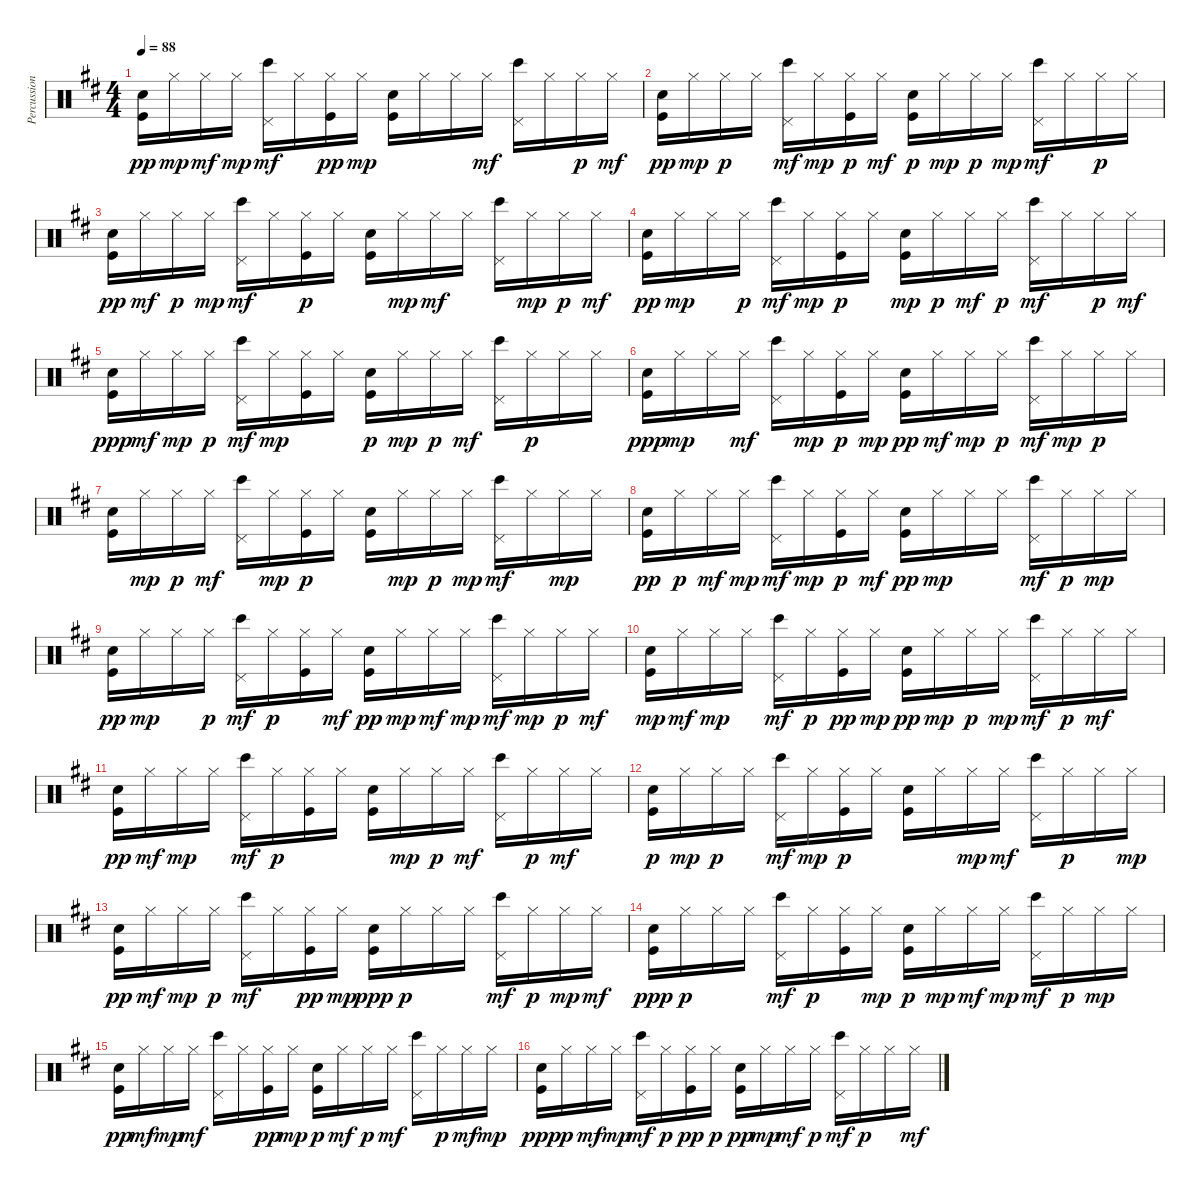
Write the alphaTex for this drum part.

\track ("Percussion" "Percussion") {instrument percussion}
\staff {score}
\articulation defaults
\ts (4 4)
\tempo 88
\clef neutral
\ks d
("Snare (hit)" "Kick (hit)").16{dy pp} "Hi-Hat (closed)".16{dy mp} "Hi-Hat (closed)".16{dy mf} "Hi-Hat (closed)".16{dy mp} ("Bongo High (hit)" "Pedal Hi-Hat (hit)").16{dy mf} "Hi-Hat (closed)".16 ("Hi-Hat (closed)" "Kick (hit)").16{dy pp} "Hi-Hat (closed)".16{dy mp} ("Snare (hit)" "Kick (hit)").16 "Hi-Hat (closed)".16 "Hi-Hat (closed)".16 "Hi-Hat (closed)".16{dy mf} ("Bongo High (hit)" "Pedal Hi-Hat (hit)").16 "Hi-Hat (closed)".16 "Hi-Hat (closed)".16{dy p} "Hi-Hat (closed)".16{dy mf} |
("Snare (hit)" "Kick (hit)").16{dy pp} "Hi-Hat (closed)".16{dy mp} "Hi-Hat (closed)".16{dy p} "Hi-Hat (closed)".16 ("Bongo High (hit)" "Pedal Hi-Hat (hit)").16{dy mf} "Hi-Hat (closed)".16{dy mp} ("Hi-Hat (closed)" "Kick (hit)").16{dy p} "Hi-Hat (closed)".16{dy mf} ("Snare (hit)" "Kick (hit)").16{dy p} "Hi-Hat (closed)".16{dy mp} "Hi-Hat (closed)".16{dy p} "Hi-Hat (closed)".16{dy mp} ("Bongo High (hit)" "Pedal Hi-Hat (hit)").16{dy mf} "Hi-Hat (closed)".16 "Hi-Hat (closed)".16{dy p} "Hi-Hat (closed)".16 |
("Snare (hit)" "Kick (hit)").16{dy pp} "Hi-Hat (closed)".16{dy mf} "Hi-Hat (closed)".16{dy p} "Hi-Hat (closed)".16{dy mp} ("Bongo High (hit)" "Pedal Hi-Hat (hit)").16{dy mf} "Hi-Hat (closed)".16 ("Hi-Hat (closed)" "Kick (hit)").16{dy p} "Hi-Hat (closed)".16 ("Snare (hit)" "Kick (hit)").16 "Hi-Hat (closed)".16{dy mp} "Hi-Hat (closed)".16{dy mf} "Hi-Hat (closed)".16 ("Bongo High (hit)" "Pedal Hi-Hat (hit)").16 "Hi-Hat (closed)".16{dy mp} "Hi-Hat (closed)".16{dy p} "Hi-Hat (closed)".16{dy mf} |
("Snare (hit)" "Kick (hit)").16{dy pp} "Hi-Hat (closed)".16{dy mp} "Hi-Hat (closed)".16 "Hi-Hat (closed)".16{dy p} ("Bongo High (hit)" "Pedal Hi-Hat (hit)").16{dy mf} "Hi-Hat (closed)".16{dy mp} ("Hi-Hat (closed)" "Kick (hit)").16{dy p} "Hi-Hat (closed)".16 ("Snare (hit)" "Kick (hit)").16{dy mp} "Hi-Hat (closed)".16{dy p} "Hi-Hat (closed)".16{dy mf} "Hi-Hat (closed)".16{dy p} ("Bongo High (hit)" "Pedal Hi-Hat (hit)").16{dy mf} "Hi-Hat (closed)".16 "Hi-Hat (closed)".16{dy p} "Hi-Hat (closed)".16{dy mf} |
("Snare (hit)" "Kick (hit)").16{dy ppp} "Hi-Hat (closed)".16{dy mf} "Hi-Hat (closed)".16{dy mp} "Hi-Hat (closed)".16{dy p} ("Bongo High (hit)" "Pedal Hi-Hat (hit)").16{dy mf} "Hi-Hat (closed)".16{dy mp} ("Hi-Hat (closed)" "Kick (hit)").16 "Hi-Hat (closed)".16 ("Snare (hit)" "Kick (hit)").16{dy p} "Hi-Hat (closed)".16{dy mp} "Hi-Hat (closed)".16{dy p} "Hi-Hat (closed)".16{dy mf} ("Bongo High (hit)" "Pedal Hi-Hat (hit)").16 "Hi-Hat (closed)".16{dy p} "Hi-Hat (closed)".16 "Hi-Hat (closed)".16 |
("Snare (hit)" "Kick (hit)").16{dy ppp} "Hi-Hat (closed)".16{dy mp} "Hi-Hat (closed)".16 "Hi-Hat (closed)".16{dy mf} ("Bongo High (hit)" "Pedal Hi-Hat (hit)").16 "Hi-Hat (closed)".16{dy mp} ("Hi-Hat (closed)" "Kick (hit)").16{dy p} "Hi-Hat (closed)".16{dy mp} ("Snare (hit)" "Kick (hit)").16{dy pp} "Hi-Hat (closed)".16{dy mf} "Hi-Hat (closed)".16{dy mp} "Hi-Hat (closed)".16{dy p} ("Bongo High (hit)" "Pedal Hi-Hat (hit)").16{dy mf} "Hi-Hat (closed)".16{dy mp} "Hi-Hat (closed)".16{dy p} "Hi-Hat (closed)".16 |
("Snare (hit)" "Kick (hit)").16 "Hi-Hat (closed)".16{dy mp} "Hi-Hat (closed)".16{dy p} "Hi-Hat (closed)".16{dy mf} ("Bongo High (hit)" "Pedal Hi-Hat (hit)").16 "Hi-Hat (closed)".16{dy mp} ("Hi-Hat (closed)" "Kick (hit)").16{dy p} "Hi-Hat (closed)".16 ("Snare (hit)" "Kick (hit)").16 "Hi-Hat (closed)".16{dy mp} "Hi-Hat (closed)".16{dy p} "Hi-Hat (closed)".16{dy mp} ("Bongo High (hit)" "Pedal Hi-Hat (hit)").16{dy mf} "Hi-Hat (closed)".16 "Hi-Hat (closed)".16{dy mp} "Hi-Hat (closed)".16 |
("Snare (hit)" "Kick (hit)").16{dy pp} "Hi-Hat (closed)".16{dy p} "Hi-Hat (closed)".16{dy mf} "Hi-Hat (closed)".16{dy mp} ("Bongo High (hit)" "Pedal Hi-Hat (hit)").16{dy mf} "Hi-Hat (closed)".16{dy mp} ("Hi-Hat (closed)" "Kick (hit)").16{dy p} "Hi-Hat (closed)".16{dy mf} ("Snare (hit)" "Kick (hit)").16{dy pp} "Hi-Hat (closed)".16{dy mp} "Hi-Hat (closed)".16 "Hi-Hat (closed)".16 ("Bongo High (hit)" "Pedal Hi-Hat (hit)").16{dy mf} "Hi-Hat (closed)".16{dy p} "Hi-Hat (closed)".16{dy mp} "Hi-Hat (closed)".16 |
("Snare (hit)" "Kick (hit)").16{dy pp} "Hi-Hat (closed)".16{dy mp} "Hi-Hat (closed)".16 "Hi-Hat (closed)".16{dy p} ("Bongo High (hit)" "Pedal Hi-Hat (hit)").16{dy mf} "Hi-Hat (closed)".16{dy p} ("Hi-Hat (closed)" "Kick (hit)").16 "Hi-Hat (closed)".16{dy mf} ("Snare (hit)" "Kick (hit)").16{dy pp} "Hi-Hat (closed)".16{dy mp} "Hi-Hat (closed)".16{dy mf} "Hi-Hat (closed)".16{dy mp} ("Bongo High (hit)" "Pedal Hi-Hat (hit)").16{dy mf} "Hi-Hat (closed)".16{dy mp} "Hi-Hat (closed)".16{dy p} "Hi-Hat (closed)".16{dy mf} |
("Snare (hit)" "Kick (hit)").16{dy mp} "Hi-Hat (closed)".16{dy mf} "Hi-Hat (closed)".16{dy mp} "Hi-Hat (closed)".16 ("Bongo High (hit)" "Pedal Hi-Hat (hit)").16{dy mf} "Hi-Hat (closed)".16{dy p} ("Hi-Hat (closed)" "Kick (hit)").16{dy pp} "Hi-Hat (closed)".16{dy mp} ("Snare (hit)" "Kick (hit)").16{dy pp} "Hi-Hat (closed)".16{dy mp} "Hi-Hat (closed)".16{dy p} "Hi-Hat (closed)".16{dy mp} ("Bongo High (hit)" "Pedal Hi-Hat (hit)").16{dy mf} "Hi-Hat (closed)".16{dy p} "Hi-Hat (closed)".16{dy mf} "Hi-Hat (closed)".16 |
("Snare (hit)" "Kick (hit)").16{dy pp} "Hi-Hat (closed)".16{dy mf} "Hi-Hat (closed)".16{dy mp} "Hi-Hat (closed)".16 ("Bongo High (hit)" "Pedal Hi-Hat (hit)").16{dy mf} "Hi-Hat (closed)".16{dy p} ("Hi-Hat (closed)" "Kick (hit)").16 "Hi-Hat (closed)".16 ("Snare (hit)" "Kick (hit)").16 "Hi-Hat (closed)".16{dy mp} "Hi-Hat (closed)".16{dy p} "Hi-Hat (closed)".16{dy mf} ("Bongo High (hit)" "Pedal Hi-Hat (hit)").16 "Hi-Hat (closed)".16{dy p} "Hi-Hat (closed)".16{dy mf} "Hi-Hat (closed)".16 |
("Snare (hit)" "Kick (hit)").16{dy p} "Hi-Hat (closed)".16{dy mp} "Hi-Hat (closed)".16{dy p} "Hi-Hat (closed)".16 ("Bongo High (hit)" "Pedal Hi-Hat (hit)").16{dy mf} "Hi-Hat (closed)".16{dy mp} ("Hi-Hat (closed)" "Kick (hit)").16{dy p} "Hi-Hat (closed)".16 ("Snare (hit)" "Kick (hit)").16 "Hi-Hat (closed)".16 "Hi-Hat (closed)".16{dy mp} "Hi-Hat (closed)".16{dy mf} ("Bongo High (hit)" "Pedal Hi-Hat (hit)").16 "Hi-Hat (closed)".16{dy p} "Hi-Hat (closed)".16 "Hi-Hat (closed)".16{dy mp} |
("Snare (hit)" "Kick (hit)").16{dy pp} "Hi-Hat (closed)".16{dy mf} "Hi-Hat (closed)".16{dy mp} "Hi-Hat (closed)".16{dy p} ("Bongo High (hit)" "Pedal Hi-Hat (hit)").16{dy mf} "Hi-Hat (closed)".16 ("Hi-Hat (closed)" "Kick (hit)").16{dy pp} "Hi-Hat (closed)".16{dy mp} ("Snare (hit)" "Kick (hit)").16{dy ppp} "Hi-Hat (closed)".16{dy p} "Hi-Hat (closed)".16 "Hi-Hat (closed)".16 ("Bongo High (hit)" "Pedal Hi-Hat (hit)").16{dy mf} "Hi-Hat (closed)".16{dy p} "Hi-Hat (closed)".16{dy mp} "Hi-Hat (closed)".16{dy mf} |
("Snare (hit)" "Kick (hit)").16{dy ppp} "Hi-Hat (closed)".16{dy p} "Hi-Hat (closed)".16 "Hi-Hat (closed)".16 ("Bongo High (hit)" "Pedal Hi-Hat (hit)").16{dy mf} "Hi-Hat (closed)".16{dy p} ("Hi-Hat (closed)" "Kick (hit)").16 "Hi-Hat (closed)".16{dy mp} ("Snare (hit)" "Kick (hit)").16{dy p} "Hi-Hat (closed)".16{dy mp} "Hi-Hat (closed)".16{dy mf} "Hi-Hat (closed)".16{dy mp} ("Bongo High (hit)" "Pedal Hi-Hat (hit)").16{dy mf} "Hi-Hat (closed)".16{dy p} "Hi-Hat (closed)".16{dy mp} "Hi-Hat (closed)".16 |
("Snare (hit)" "Kick (hit)").16{dy pp} "Hi-Hat (closed)".16{dy mf} "Hi-Hat (closed)".16{dy mp} "Hi-Hat (closed)".16{dy mf} ("Bongo High (hit)" "Pedal Hi-Hat (hit)").16 "Hi-Hat (closed)".16 ("Hi-Hat (closed)" "Kick (hit)").16{dy pp} "Hi-Hat (closed)".16{dy mp} ("Snare (hit)" "Kick (hit)").16{dy p} "Hi-Hat (closed)".16{dy mf} "Hi-Hat (closed)".16{dy p} "Hi-Hat (closed)".16{dy mf} ("Bongo High (hit)" "Pedal Hi-Hat (hit)").16 "Hi-Hat (closed)".16{dy p} "Hi-Hat (closed)".16{dy mf} "Hi-Hat (closed)".16{dy mp} |
("Snare (hit)" "Kick (hit)").16{dy ppp} "Hi-Hat (closed)".16{dy p} "Hi-Hat (closed)".16{dy mf} "Hi-Hat (closed)".16{dy mp} ("Bongo High (hit)" "Pedal Hi-Hat (hit)").16{dy mf} "Hi-Hat (closed)".16{dy p} ("Hi-Hat (closed)" "Kick (hit)").16{dy pp} "Hi-Hat (closed)".16{dy p} ("Snare (hit)" "Kick (hit)").16{dy pp} "Hi-Hat (closed)".16{dy mp} "Hi-Hat (closed)".16{dy mf} "Hi-Hat (closed)".16{dy p} ("Bongo High (hit)" "Pedal Hi-Hat (hit)").16{dy mf} "Hi-Hat (closed)".16{dy p} "Hi-Hat (closed)".16 "Hi-Hat (closed)".16{dy mf}
